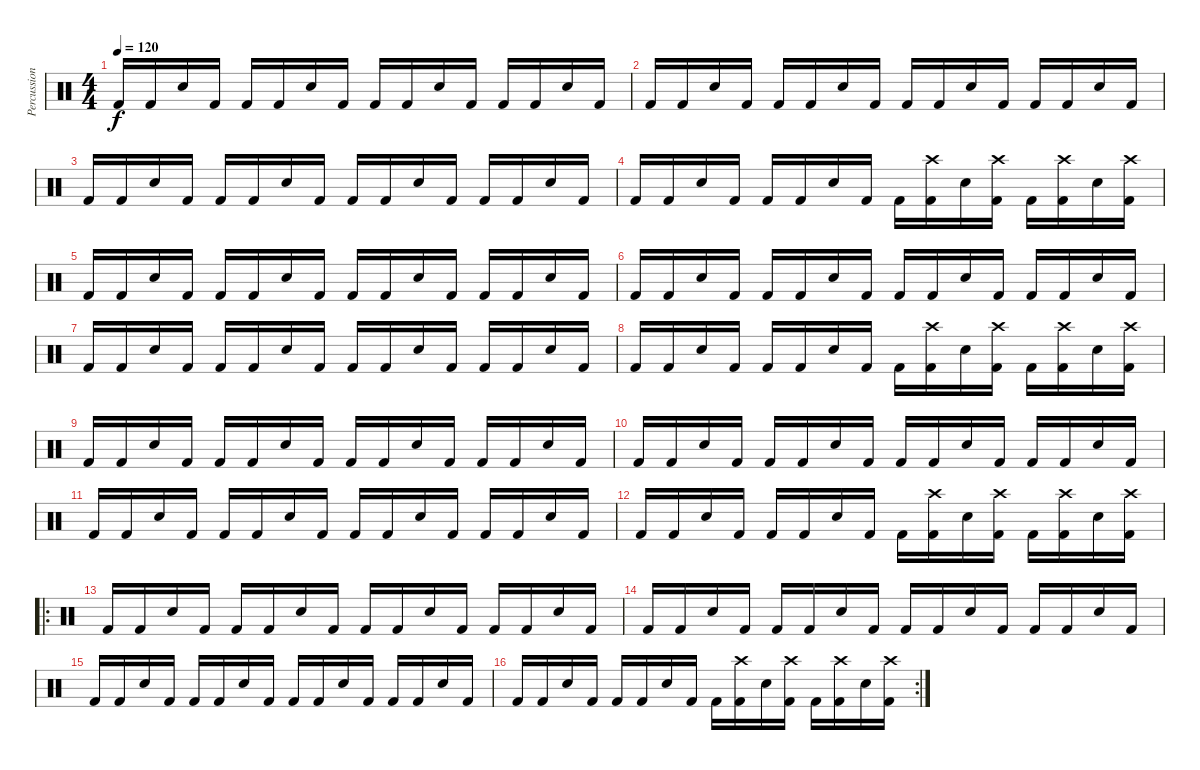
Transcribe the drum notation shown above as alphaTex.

\track ("Percussion" "Percussion") {instrument percussion}
\staff {score}
\articulation defaults
\ts (4 4)
\tempo 120
\clef neutral
\ks c "Kick (hit) 2".16{dy f} "Kick (hit) 2".16 "Snare (hit) 2".16 "Kick (hit) 2".16 "Kick (hit) 2".16 "Kick (hit) 2".16 "Snare (hit) 2".16 "Kick (hit) 2".16 "Kick (hit) 2".16 "Kick (hit) 2".16 "Snare (hit) 2".16 "Kick (hit) 2".16 "Kick (hit) 2".16 "Kick (hit) 2".16 "Snare (hit) 2".16 "Kick (hit) 2".16
|
"Kick (hit) 2".16 "Kick (hit) 2".16 "Snare (hit) 2".16 "Kick (hit) 2".16 "Kick (hit) 2".16 "Kick (hit) 2".16 "Snare (hit) 2".16 "Kick (hit) 2".16 "Kick (hit) 2".16 "Kick (hit) 2".16 "Snare (hit) 2".16 "Kick (hit) 2".16 "Kick (hit) 2".16 "Kick (hit) 2".16 "Snare (hit) 2".16 "Kick (hit) 2".16 |
"Kick (hit) 2".16 "Kick (hit) 2".16 "Snare (hit) 2".16 "Kick (hit) 2".16 "Kick (hit) 2".16 "Kick (hit) 2".16 "Snare (hit) 2".16 "Kick (hit) 2".16 "Kick (hit) 2".16 "Kick (hit) 2".16 "Snare (hit) 2".16 "Kick (hit) 2".16 "Kick (hit) 2".16 "Kick (hit) 2".16 "Snare (hit) 2".16 "Kick (hit) 2".16 |
"Kick (hit) 2".16 "Kick (hit) 2".16 "Snare (hit) 2".16 "Kick (hit) 2".16 "Kick (hit) 2".16 "Kick (hit) 2".16 "Snare (hit) 2".16 "Kick (hit) 2".16 "Kick (hit) 2".16 ("Crash high (hit)" "Kick (hit) 2").16 "Snare (hit) 2".16 ("Crash high (hit)" "Kick (hit) 2").16 "Kick (hit) 2".16 ("Crash high (hit)" "Kick (hit) 2").16 "Snare (hit) 2".16 ("Crash high (hit)" "Kick (hit) 2").16 |
"Kick (hit) 2".16 "Kick (hit) 2".16 "Snare (hit) 2".16 "Kick (hit) 2".16 "Kick (hit) 2".16 "Kick (hit) 2".16 "Snare (hit) 2".16 "Kick (hit) 2".16 "Kick (hit) 2".16 "Kick (hit) 2".16 "Snare (hit) 2".16 "Kick (hit) 2".16 "Kick (hit) 2".16 "Kick (hit) 2".16 "Snare (hit) 2".16 "Kick (hit) 2".16 |
"Kick (hit) 2".16 "Kick (hit) 2".16 "Snare (hit) 2".16 "Kick (hit) 2".16 "Kick (hit) 2".16 "Kick (hit) 2".16 "Snare (hit) 2".16 "Kick (hit) 2".16 "Kick (hit) 2".16 "Kick (hit) 2".16 "Snare (hit) 2".16 "Kick (hit) 2".16 "Kick (hit) 2".16 "Kick (hit) 2".16 "Snare (hit) 2".16 "Kick (hit) 2".16 |
"Kick (hit) 2".16 "Kick (hit) 2".16 "Snare (hit) 2".16 "Kick (hit) 2".16 "Kick (hit) 2".16 "Kick (hit) 2".16 "Snare (hit) 2".16 "Kick (hit) 2".16 "Kick (hit) 2".16 "Kick (hit) 2".16 "Snare (hit) 2".16 "Kick (hit) 2".16 "Kick (hit) 2".16 "Kick (hit) 2".16 "Snare (hit) 2".16 "Kick (hit) 2".16 |
"Kick (hit) 2".16 "Kick (hit) 2".16 "Snare (hit) 2".16 "Kick (hit) 2".16 "Kick (hit) 2".16 "Kick (hit) 2".16 "Snare (hit) 2".16 "Kick (hit) 2".16 "Kick (hit) 2".16 ("Crash high (hit)" "Kick (hit) 2").16 "Snare (hit) 2".16 ("Crash high (hit)" "Kick (hit) 2").16 "Kick (hit) 2".16 ("Crash high (hit)" "Kick (hit) 2").16 "Snare (hit) 2".16 ("Crash high (hit)" "Kick (hit) 2").16 |
"Kick (hit) 2".16 "Kick (hit) 2".16 "Snare (hit) 2".16 "Kick (hit) 2".16 "Kick (hit) 2".16 "Kick (hit) 2".16 "Snare (hit) 2".16 "Kick (hit) 2".16 "Kick (hit) 2".16 "Kick (hit) 2".16 "Snare (hit) 2".16 "Kick (hit) 2".16 "Kick (hit) 2".16 "Kick (hit) 2".16 "Snare (hit) 2".16 "Kick (hit) 2".16 |
"Kick (hit) 2".16 "Kick (hit) 2".16 "Snare (hit) 2".16 "Kick (hit) 2".16 "Kick (hit) 2".16 "Kick (hit) 2".16 "Snare (hit) 2".16 "Kick (hit) 2".16 "Kick (hit) 2".16 "Kick (hit) 2".16 "Snare (hit) 2".16 "Kick (hit) 2".16 "Kick (hit) 2".16 "Kick (hit) 2".16 "Snare (hit) 2".16 "Kick (hit) 2".16 |
"Kick (hit) 2".16 "Kick (hit) 2".16 "Snare (hit) 2".16 "Kick (hit) 2".16 "Kick (hit) 2".16 "Kick (hit) 2".16 "Snare (hit) 2".16 "Kick (hit) 2".16 "Kick (hit) 2".16 "Kick (hit) 2".16 "Snare (hit) 2".16 "Kick (hit) 2".16 "Kick (hit) 2".16 "Kick (hit) 2".16 "Snare (hit) 2".16 "Kick (hit) 2".16 |
"Kick (hit) 2".16 "Kick (hit) 2".16 "Snare (hit) 2".16 "Kick (hit) 2".16 "Kick (hit) 2".16 "Kick (hit) 2".16 "Snare (hit) 2".16 "Kick (hit) 2".16 "Kick (hit) 2".16 ("Crash high (hit)" "Kick (hit) 2").16 "Snare (hit) 2".16 ("Crash high (hit)" "Kick (hit) 2").16 "Kick (hit) 2".16 ("Crash high (hit)" "Kick (hit) 2").16 "Snare (hit) 2".16 ("Crash high (hit)" "Kick (hit) 2").16 |
\ro "Kick (hit) 2".16 "Kick (hit) 2".16 "Snare (hit) 2".16 "Kick (hit) 2".16 "Kick (hit) 2".16 "Kick (hit) 2".16 "Snare (hit) 2".16 "Kick (hit) 2".16 "Kick (hit) 2".16 "Kick (hit) 2".16 "Snare (hit) 2".16 "Kick (hit) 2".16 "Kick (hit) 2".16 "Kick (hit) 2".16 "Snare (hit) 2".16 "Kick (hit) 2".16
|
"Kick (hit) 2".16 "Kick (hit) 2".16 "Snare (hit) 2".16 "Kick (hit) 2".16 "Kick (hit) 2".16 "Kick (hit) 2".16 "Snare (hit) 2".16 "Kick (hit) 2".16 "Kick (hit) 2".16 "Kick (hit) 2".16 "Snare (hit) 2".16 "Kick (hit) 2".16 "Kick (hit) 2".16 "Kick (hit) 2".16 "Snare (hit) 2".16 "Kick (hit) 2".16 |
"Kick (hit) 2".16 "Kick (hit) 2".16 "Snare (hit) 2".16 "Kick (hit) 2".16 "Kick (hit) 2".16 "Kick (hit) 2".16 "Snare (hit) 2".16 "Kick (hit) 2".16 "Kick (hit) 2".16 "Kick (hit) 2".16 "Snare (hit) 2".16 "Kick (hit) 2".16 "Kick (hit) 2".16 "Kick (hit) 2".16 "Snare (hit) 2".16 "Kick (hit) 2".16 |
\rc 2 "Kick (hit) 2".16 "Kick (hit) 2".16 "Snare (hit) 2".16 "Kick (hit) 2".16 "Kick (hit) 2".16 "Kick (hit) 2".16 "Snare (hit) 2".16 "Kick (hit) 2".16 "Kick (hit) 2".16
("Crash high (hit)" "Kick (hit) 2").16 "Snare (hit) 2".16 ("Crash high (hit)" "Kick (hit) 2").16 "Kick (hit) 2".16 ("Crash high (hit)" "Kick (hit) 2").16 "Snare (hit) 2".16 ("Crash high (hit)" "Kick (hit) 2").16
